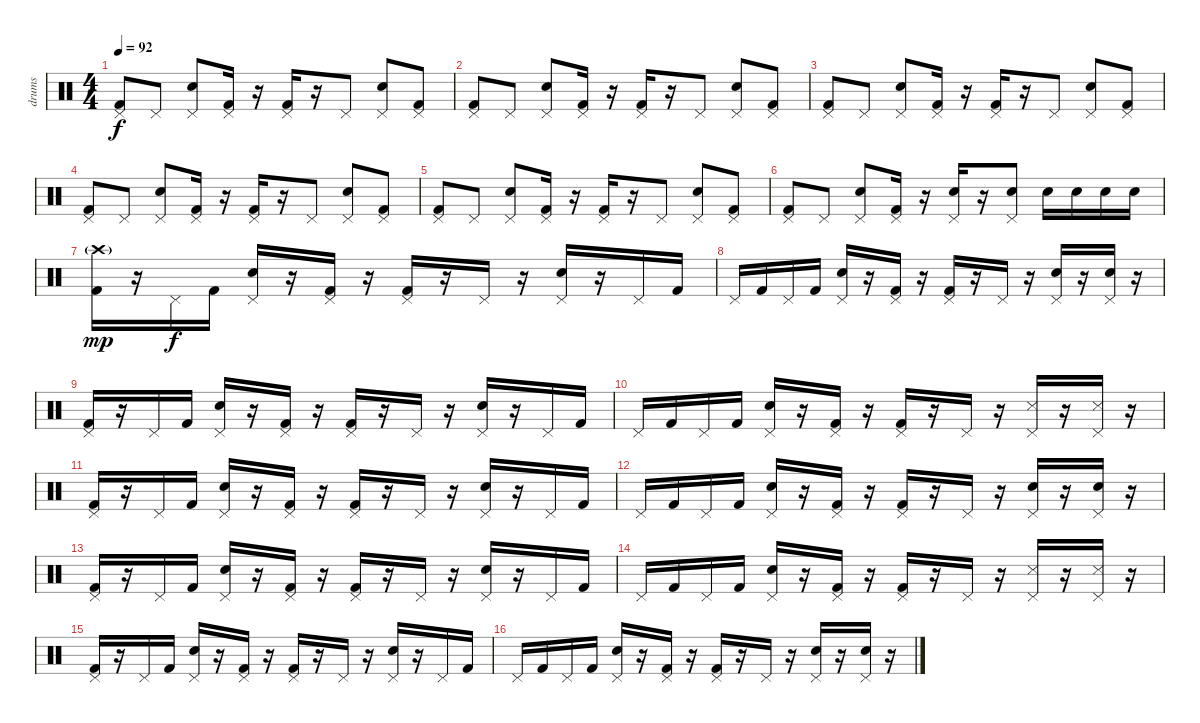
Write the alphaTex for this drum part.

\track ("drums" "drums") {instrument percussion}
\staff {score}
\articulation defaults
\ts (4 4)
\tempo 92
\clef neutral
\ks c
("Kick (hit) 2" "Pedal Hi-Hat (hit)").8{dy f} "Pedal Hi-Hat (hit)".8 ("Electric Snare (hit)" "Pedal Hi-Hat (hit)").8 ("Kick (hit) 2" "Pedal Hi-Hat (hit)").16 r.16 ("Kick (hit) 2" "Pedal Hi-Hat (hit)").16 r.16 "Pedal Hi-Hat (hit)".8 ("Electric Snare (hit)" "Pedal Hi-Hat (hit)").8 ("Kick (hit) 2" "Pedal Hi-Hat (hit)").8 |
("Kick (hit) 2" "Pedal Hi-Hat (hit)").8 "Pedal Hi-Hat (hit)".8 ("Electric Snare (hit)" "Pedal Hi-Hat (hit)").8 ("Kick (hit) 2" "Pedal Hi-Hat (hit)").16 r.16 ("Kick (hit) 2" "Pedal Hi-Hat (hit)").16 r.16 "Pedal Hi-Hat (hit)".8 ("Electric Snare (hit)" "Pedal Hi-Hat (hit)").8 ("Kick (hit) 2" "Pedal Hi-Hat (hit)").8 |
("Kick (hit) 2" "Pedal Hi-Hat (hit)").8 "Pedal Hi-Hat (hit)".8 ("Electric Snare (hit)" "Pedal Hi-Hat (hit)").8 ("Kick (hit) 2" "Pedal Hi-Hat (hit)").16 r.16 ("Kick (hit) 2" "Pedal Hi-Hat (hit)").16 r.16 "Pedal Hi-Hat (hit)".8 ("Electric Snare (hit)" "Pedal Hi-Hat (hit)").8 ("Kick (hit) 2" "Pedal Hi-Hat (hit)").8 |
("Kick (hit) 2" "Pedal Hi-Hat (hit)").8 "Pedal Hi-Hat (hit)".8 ("Electric Snare (hit)" "Pedal Hi-Hat (hit)").8 ("Kick (hit) 2" "Pedal Hi-Hat (hit)").16 r.16 ("Kick (hit) 2" "Pedal Hi-Hat (hit)").16 r.16 "Pedal Hi-Hat (hit)".8 ("Electric Snare (hit)" "Pedal Hi-Hat (hit)").8 ("Kick (hit) 2" "Pedal Hi-Hat (hit)").8 |
("Kick (hit) 2" "Pedal Hi-Hat (hit)").8 "Pedal Hi-Hat (hit)".8 ("Electric Snare (hit)" "Pedal Hi-Hat (hit)").8 ("Kick (hit) 2" "Pedal Hi-Hat (hit)").16 r.16 ("Kick (hit) 2" "Pedal Hi-Hat (hit)").16 r.16 "Pedal Hi-Hat (hit)".8 ("Electric Snare (hit)" "Pedal Hi-Hat (hit)").8 ("Kick (hit) 2" "Pedal Hi-Hat (hit)").8 |
("Kick (hit) 2" "Pedal Hi-Hat (hit)").8 "Pedal Hi-Hat (hit)".8 ("Electric Snare (hit)" "Pedal Hi-Hat (hit)").8 ("Kick (hit) 2" "Pedal Hi-Hat (hit)").16 r.16 ("Electric Snare (hit)" "Pedal Hi-Hat (hit)").16 r.16 ("Electric Snare (hit)" "Pedal Hi-Hat (hit)").8 "Electric Snare (hit)".16 "Electric Snare (hit)".16 "Electric Snare (hit)".16 "Electric Snare (hit)".16 |
("Kick (hit) 2" "Crash high (hit)"{g}).16{dy mp} r.16 "Pedal Hi-Hat (hit)".16{dy f} "Kick (hit) 2".16 ("Electric Snare (hit)" "Pedal Hi-Hat (hit)").16 r.16 ("Kick (hit) 2" "Pedal Hi-Hat (hit)").16 r.16 ("Kick (hit) 2" "Pedal Hi-Hat (hit)").16 r.16 "Pedal Hi-Hat (hit)".16 r.16 ("Electric Snare (hit)" "Pedal Hi-Hat (hit)").16 r.16 "Pedal Hi-Hat (hit)".16 "Kick (hit) 2".16 |
"Pedal Hi-Hat (hit)".16 "Kick (hit) 2".16 "Pedal Hi-Hat (hit)".16 "Kick (hit) 2".16 ("Electric Snare (hit)" "Pedal Hi-Hat (hit)").16 r.16 ("Kick (hit) 2" "Pedal Hi-Hat (hit)").16 r.16 ("Kick (hit) 2" "Pedal Hi-Hat (hit)").16 r.16 "Pedal Hi-Hat (hit)".16 r.16 ("Electric Snare (hit)" "Pedal Hi-Hat (hit)").16 r.16 ("Electric Snare (hit)" "Pedal Hi-Hat (hit)").16 r.16 |
("Kick (hit) 2" "Pedal Hi-Hat (hit)").16 r.16 "Pedal Hi-Hat (hit)".16 "Kick (hit) 2".16 ("Electric Snare (hit)" "Pedal Hi-Hat (hit)").16 r.16 ("Kick (hit) 2" "Pedal Hi-Hat (hit)").16 r.16 ("Kick (hit) 2" "Pedal Hi-Hat (hit)").16 r.16 "Pedal Hi-Hat (hit)".16 r.16 ("Electric Snare (hit)" "Pedal Hi-Hat (hit)").16 r.16 "Pedal Hi-Hat (hit)".16 "Kick (hit) 2".16 |
"Pedal Hi-Hat (hit)".16 "Kick (hit) 2".16 "Pedal Hi-Hat (hit)".16 "Kick (hit) 2".16 ("Electric Snare (hit)" "Pedal Hi-Hat (hit)").16 r.16 ("Kick (hit) 2" "Pedal Hi-Hat (hit)").16 r.16 ("Kick (hit) 2" "Pedal Hi-Hat (hit)").16 r.16 "Pedal Hi-Hat (hit)".16 r.16 ("Snare (side stick) 3" "Pedal Hi-Hat (hit)").16 r.16 ("Snare (side stick) 3" "Pedal Hi-Hat (hit)").16 r.16 |
("Kick (hit) 2" "Pedal Hi-Hat (hit)").16 r.16 "Pedal Hi-Hat (hit)".16 "Kick (hit) 2".16 ("Electric Snare (hit)" "Pedal Hi-Hat (hit)").16 r.16 ("Kick (hit) 2" "Pedal Hi-Hat (hit)").16 r.16 ("Kick (hit) 2" "Pedal Hi-Hat (hit)").16 r.16 "Pedal Hi-Hat (hit)".16 r.16 ("Electric Snare (hit)" "Pedal Hi-Hat (hit)").16 r.16 "Pedal Hi-Hat (hit)".16 "Kick (hit) 2".16 |
"Pedal Hi-Hat (hit)".16 "Kick (hit) 2".16 "Pedal Hi-Hat (hit)".16 "Kick (hit) 2".16 ("Electric Snare (hit)" "Pedal Hi-Hat (hit)").16 r.16 ("Kick (hit) 2" "Pedal Hi-Hat (hit)").16 r.16 ("Kick (hit) 2" "Pedal Hi-Hat (hit)").16 r.16 "Pedal Hi-Hat (hit)".16 r.16 ("Electric Snare (hit)" "Pedal Hi-Hat (hit)").16 r.16 ("Electric Snare (hit)" "Pedal Hi-Hat (hit)").16 r.16 |
("Kick (hit) 2" "Pedal Hi-Hat (hit)").16 r.16 "Pedal Hi-Hat (hit)".16 "Kick (hit) 2".16 ("Electric Snare (hit)" "Pedal Hi-Hat (hit)").16 r.16 ("Kick (hit) 2" "Pedal Hi-Hat (hit)").16 r.16 ("Kick (hit) 2" "Pedal Hi-Hat (hit)").16 r.16 "Pedal Hi-Hat (hit)".16 r.16 ("Electric Snare (hit)" "Pedal Hi-Hat (hit)").16 r.16 "Pedal Hi-Hat (hit)".16 "Kick (hit) 2".16 |
"Pedal Hi-Hat (hit)".16 "Kick (hit) 2".16 "Pedal Hi-Hat (hit)".16 "Kick (hit) 2".16 ("Electric Snare (hit)" "Pedal Hi-Hat (hit)").16 r.16 ("Kick (hit) 2" "Pedal Hi-Hat (hit)").16 r.16 ("Kick (hit) 2" "Pedal Hi-Hat (hit)").16 r.16 "Pedal Hi-Hat (hit)".16 r.16 ("Snare (side stick) 3" "Pedal Hi-Hat (hit)").16 r.16 ("Snare (side stick) 3" "Pedal Hi-Hat (hit)").16 r.16 |
("Kick (hit) 2" "Pedal Hi-Hat (hit)").16 r.16 "Pedal Hi-Hat (hit)".16 "Kick (hit) 2".16 ("Electric Snare (hit)" "Pedal Hi-Hat (hit)").16 r.16 ("Kick (hit) 2" "Pedal Hi-Hat (hit)").16 r.16 ("Kick (hit) 2" "Pedal Hi-Hat (hit)").16 r.16 "Pedal Hi-Hat (hit)".16 r.16 ("Electric Snare (hit)" "Pedal Hi-Hat (hit)").16 r.16 "Pedal Hi-Hat (hit)".16 "Kick (hit) 2".16 |
"Pedal Hi-Hat (hit)".16 "Kick (hit) 2".16 "Pedal Hi-Hat (hit)".16 "Kick (hit) 2".16 ("Electric Snare (hit)" "Pedal Hi-Hat (hit)").16 r.16 ("Kick (hit) 2" "Pedal Hi-Hat (hit)").16 r.16 ("Kick (hit) 2" "Pedal Hi-Hat (hit)").16 r.16 "Pedal Hi-Hat (hit)".16 r.16 ("Electric Snare (hit)" "Pedal Hi-Hat (hit)").16 r.16 ("Electric Snare (hit)" "Pedal Hi-Hat (hit)").16 r.16
